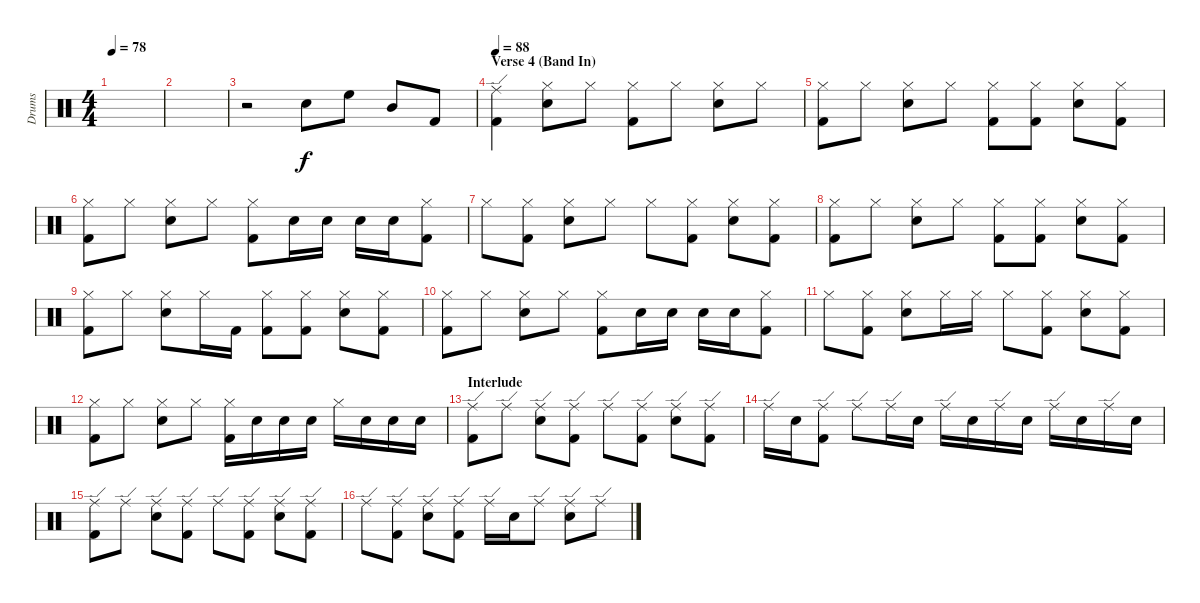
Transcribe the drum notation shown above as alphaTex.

\defaultSystemsLayout 4
\bracketExtendMode groupsimilarinstruments
\otherSystemsTrackNameOrientation horizontal
\track ("Drumkit (Bonham)" "Drums") {instrument percussion}
\staff {score}
\articulation defaults
\ts (4 4)
\tempo 78
\clef neutral
\scale
0.333333
\ks c
|
\scale
0.333333 |
\scale
0.333333 r.2{beam Down} "Snare (hit) 2".8{beam Down} "High Floor Tom (hit)".8{beam Down} "Mid Tom (hit)".8{beam Up} "Kick (hit) 2".8{beam Up} |
\section ("" "Verse 4 (Band In)")
\tempo 88
\scale
0.333333 ("Ride (edge)" "Kick (hit) 2").4{beam Down} ("Hi-Hat (closed)" "Snare (hit) 2").8{beam Down} "Hi-Hat (closed)".8{beam Down} ("Hi-Hat (closed)" "Kick (hit) 2").8{beam Down} "Hi-Hat (closed)".8{beam Down} ("Hi-Hat (closed)" "Snare (hit) 2").8{beam Down} "Hi-Hat (closed)".8{beam Down} |
\scale
0.333333 ("Hi-Hat (closed)" "Kick (hit) 2").8{beam Down} "Hi-Hat (closed)".8{beam Down} ("Hi-Hat (closed)" "Snare (hit) 2").8{beam Down} "Hi-Hat (closed)".8{beam Down} ("Hi-Hat (closed)" "Kick (hit) 2").8{beam Down} ("Hi-Hat (closed)" "Kick (hit) 2").8{beam Down} ("Hi-Hat (closed)" "Snare (hit) 2").8{beam Down} ("Hi-Hat (closed)" "Kick (hit) 2").8{beam Down} |
\scale
0.333333 ("Hi-Hat (closed)" "Kick (hit) 2").8{beam Down} "Hi-Hat (closed)".8{beam Down} ("Hi-Hat (closed)" "Snare (hit) 2").8{beam Down} "Hi-Hat (closed)".8{beam Down} ("Hi-Hat (closed)" "Kick (hit) 2").8{beam Down} "Snare (hit) 2".16{beam Down} "Snare (hit) 2".16{beam Down} "Snare (hit) 2".16{beam Down} "Snare (hit) 2".16{beam Down} ("Hi-Hat (closed)" "Kick (hit) 2").8{beam Down} |
\scale
0.333333 "Hi-Hat (closed)".8{beam Down} ("Hi-Hat (closed)" "Kick (hit) 2").8{beam Down} ("Hi-Hat (closed)" "Snare (hit) 2").8{beam Down} "Hi-Hat (closed)".8{beam Down} "Hi-Hat (closed)".8{beam Down} ("Hi-Hat (closed)" "Kick (hit) 2").8{beam Down} ("Hi-Hat (closed)" "Snare (hit) 2").8{beam Down} ("Hi-Hat (closed)" "Kick (hit) 2").8{beam Down} |
\scale
0.333333 ("Hi-Hat (closed)" "Kick (hit) 2").8{beam Down} "Hi-Hat (closed)".8{beam Down} ("Hi-Hat (closed)" "Snare (hit) 2").8{beam Down} "Hi-Hat (closed)".8{beam Down} ("Hi-Hat (closed)" "Kick (hit) 2").8{beam Down} ("Hi-Hat (closed)" "Kick (hit) 2").8{beam Down} ("Hi-Hat (closed)" "Snare (hit) 2").8{beam Down} ("Hi-Hat (closed)" "Kick (hit) 2").8{beam Down} |
\scale
0.333333 ("Hi-Hat (closed)" "Kick (hit) 2").8{beam Down} "Hi-Hat (closed)".8{beam Down} ("Hi-Hat (closed)" "Snare (hit) 2").8{beam Down} "Hi-Hat (closed)".16{beam Down} "Kick (hit) 2".16{beam Down} ("Hi-Hat (closed)" "Kick (hit) 2").8{beam Down} ("Hi-Hat (closed)" "Kick (hit) 2").8{beam Down} ("Hi-Hat (closed)" "Snare (hit) 2").8{beam Down} ("Hi-Hat (closed)" "Kick (hit) 2").8{beam Down} |
\scale
0.333333 ("Hi-Hat (closed)" "Kick (hit) 2").8{beam Down} "Hi-Hat (closed)".8{beam Down} ("Hi-Hat (closed)" "Snare (hit) 2").8{beam Down} "Hi-Hat (closed)".8{beam Down} ("Hi-Hat (closed)" "Kick (hit) 2").8{beam Down} "Snare (hit) 2".16{beam Down} "Snare (hit) 2".16{beam Down} "Snare (hit) 2".16{beam Down} "Snare (hit) 2".16{beam Down} ("Hi-Hat (closed)" "Kick (hit) 2").8{beam Down} |
\scale
0.333333 "Hi-Hat (closed)".8{beam Down} ("Hi-Hat (closed)" "Kick (hit) 2").8{beam Down} ("Hi-Hat (closed)" "Snare (hit) 2").8{beam Down} "Hi-Hat (closed)".16{beam Down} "Hi-Hat (closed)".16{beam Down} "Hi-Hat (closed)".8{beam Down} ("Hi-Hat (closed)" "Kick (hit) 2").8{beam Down} ("Hi-Hat (closed)" "Snare (hit) 2").8{beam Down} ("Hi-Hat (closed)" "Kick (hit) 2").8{beam Down} |
\scale
0.333333 ("Hi-Hat (closed)" "Kick (hit) 2").8{beam Down} "Hi-Hat (closed)".8{beam Down} ("Hi-Hat (closed)" "Snare (hit) 2").8{beam Down} "Hi-Hat (closed)".8{beam Down} ("Hi-Hat (closed)" "Kick (hit) 2").16{beam Down} "Snare (hit) 2".16{beam Down} "Snare (hit) 2".16{beam Down} "Snare (hit) 2".16{beam Down} "Hi-Hat (closed)".16{beam Down} "Snare (hit) 2".16{beam Down} "Snare (hit) 2".16{beam Down} "Snare (hit) 2".16{beam Down} |
\section ("" "Interlude")
\scale
0.333333 ("Ride (edge)" "Kick (hit) 2").8{beam Down} "Ride (edge)".8{beam Down} ("Ride (edge)" "Snare (hit) 2").8{beam Down} ("Ride (edge)" "Kick (hit) 2").8{beam Down} "Ride (edge)".8{beam Down} ("Ride (edge)" "Kick (hit) 2").8{beam Down} ("Ride (edge)" "Snare (hit) 2").8{beam Down} ("Ride (edge)" "Kick (hit) 2").8{beam Down} |
\scale
0.333333 "Ride (edge)".16{beam Down} "Snare (hit) 2".16{beam Down} ("Ride (edge)" "Kick (hit) 2").8{beam Down} "Ride (edge)".8{beam Down} "Ride (edge)".16{beam Down} "Snare (hit) 2".16{beam Down} "Ride (edge)".16{beam Down} "Snare (hit) 2".16{beam Down} "Ride (edge)".16{beam Down} "Snare (hit) 2".16{beam Down} "Ride (edge)".16{beam Down} "Snare (hit) 2".16{beam Down} "Ride (edge)".16{beam Down} "Snare (hit) 2".16{beam Down} |
\scale
0.333333 ("Ride (edge)" "Kick (hit) 2").8{beam Down} "Ride (edge)".8{beam Down} ("Ride (edge)" "Snare (hit) 2").8{beam Down} ("Ride (edge)" "Kick (hit) 2").8{beam Down} "Ride (edge)".8{beam Down} ("Ride (edge)" "Kick (hit) 2").8{beam Down} ("Ride (edge)" "Snare (hit) 2").8{beam Down} ("Ride (edge)" "Kick (hit) 2").8{beam Down} |
\scale
0.333333 "Ride (edge)".8{beam Down} ("Ride (edge)" "Kick (hit) 2").8{beam Down} ("Ride (edge)" "Snare (hit) 2").8{beam Down} ("Ride (edge)" "Kick (hit) 2").8{beam Down} "Ride (edge)".16{beam Down} "Snare (hit) 2".16{beam Down} "Ride (edge)".8{beam Down} ("Ride (edge)" "Snare (hit) 2").8{beam Down} "Ride (edge)".8{beam Down}
